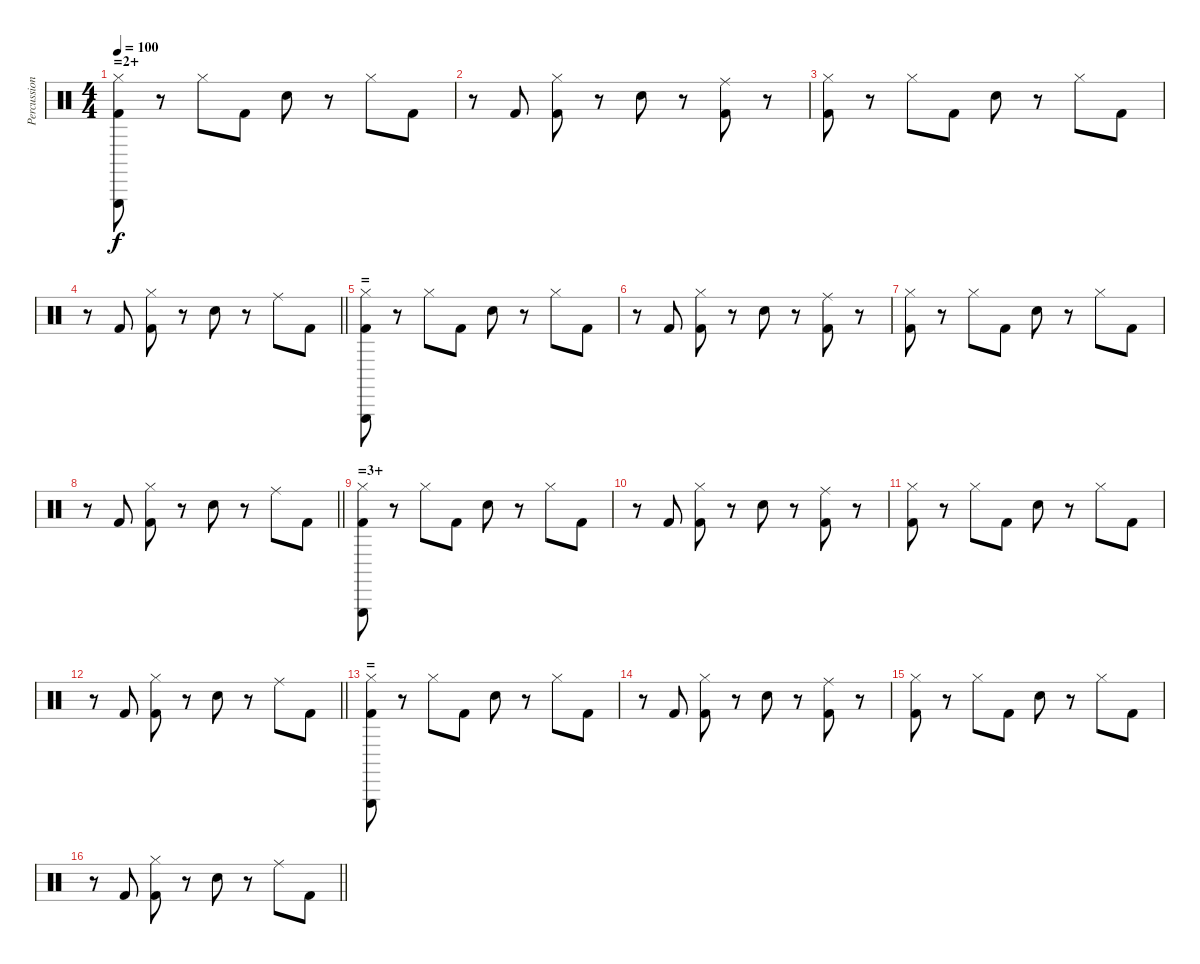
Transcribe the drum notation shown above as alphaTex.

\track ("Percussion" "Percussion") {instrument percussion}
\staff {score}
\articulation defaults
\ts (4 4)
\section ("" "=2+")
\tempo 100
\clef neutral
\ks c
("Kick (hit) 2" "Triangle (hit)" "Hi-Hat (closed)").8{dy f} r.8 "Hi-Hat (closed)".8 "Kick (hit) 2".8 "Electric Snare (hit)".8 r.8 "Hi-Hat (closed)".8 "Kick (hit) 2".8 |
r.8 "Kick (hit) 2".8 ("Kick (hit) 2" "Hi-Hat (closed)").8 r.8 "Electric Snare (hit)".8 r.8 ("Kick (hit) 2" "Ride (middle)").8 r.8 |
("Kick (hit) 2" "Hi-Hat (closed)").8 r.8 "Hi-Hat (closed)".8 "Kick (hit) 2".8 "Electric Snare (hit)".8 r.8 "Hi-Hat (closed)".8 "Kick (hit) 2".8 |
\barLineRight lightlight
r.8 "Kick (hit) 2".8 ("Kick (hit) 2" "Hi-Hat (closed)").8 r.8 "Electric Snare (hit)".8 r.8 "Ride (middle)".8 "Kick (hit) 2".8 |
\section ("" "=")
("Kick (hit) 2" "Triangle (hit)" "Hi-Hat (closed)").8 r.8 "Hi-Hat (closed)".8 "Kick (hit) 2".8 "Electric Snare (hit)".8 r.8 "Hi-Hat (closed)".8 "Kick (hit) 2".8 |
r.8 "Kick (hit) 2".8 ("Kick (hit) 2" "Hi-Hat (closed)").8 r.8 "Electric Snare (hit)".8 r.8 ("Kick (hit) 2" "Ride (middle)").8 r.8 |
("Kick (hit) 2" "Hi-Hat (closed)").8 r.8 "Hi-Hat (closed)".8 "Kick (hit) 2".8 "Electric Snare (hit)".8 r.8 "Hi-Hat (closed)".8 "Kick (hit) 2".8 |
\barLineRight lightlight
r.8 "Kick (hit) 2".8 ("Kick (hit) 2" "Hi-Hat (closed)").8 r.8 "Electric Snare (hit)".8 r.8 "Ride (middle)".8 "Kick (hit) 2".8 |
\section ("" "=3+")
("Kick (hit) 2" "Triangle (hit)" "Hi-Hat (closed)").8 r.8 "Hi-Hat (closed)".8 "Kick (hit) 2".8 "Electric Snare (hit)".8 r.8 "Hi-Hat (closed)".8 "Kick (hit) 2".8 |
r.8 "Kick (hit) 2".8 ("Kick (hit) 2" "Hi-Hat (closed)").8 r.8 "Electric Snare (hit)".8 r.8 ("Kick (hit) 2" "Ride (middle)").8 r.8 |
("Kick (hit) 2" "Hi-Hat (closed)").8 r.8 "Hi-Hat (closed)".8 "Kick (hit) 2".8 "Electric Snare (hit)".8 r.8 "Hi-Hat (closed)".8 "Kick (hit) 2".8 |
\barLineRight lightlight
r.8 "Kick (hit) 2".8 ("Kick (hit) 2" "Hi-Hat (closed)").8 r.8 "Electric Snare (hit)".8 r.8 "Ride (middle)".8 "Kick (hit) 2".8 |
\section ("" "=")
("Kick (hit) 2" "Triangle (hit)" "Hi-Hat (closed)").8 r.8 "Hi-Hat (closed)".8 "Kick (hit) 2".8 "Electric Snare (hit)".8 r.8 "Hi-Hat (closed)".8 "Kick (hit) 2".8 |
r.8 "Kick (hit) 2".8 ("Kick (hit) 2" "Hi-Hat (closed)").8 r.8 "Electric Snare (hit)".8 r.8 ("Kick (hit) 2" "Ride (middle)").8 r.8 |
("Kick (hit) 2" "Hi-Hat (closed)").8 r.8 "Hi-Hat (closed)".8 "Kick (hit) 2".8 "Electric Snare (hit)".8 r.8 "Hi-Hat (closed)".8 "Kick (hit) 2".8 |
\barLineRight lightlight
r.8 "Kick (hit) 2".8 ("Kick (hit) 2" "Hi-Hat (closed)").8 r.8 "Electric Snare (hit)".8 r.8 "Ride (middle)".8 "Kick (hit) 2".8
